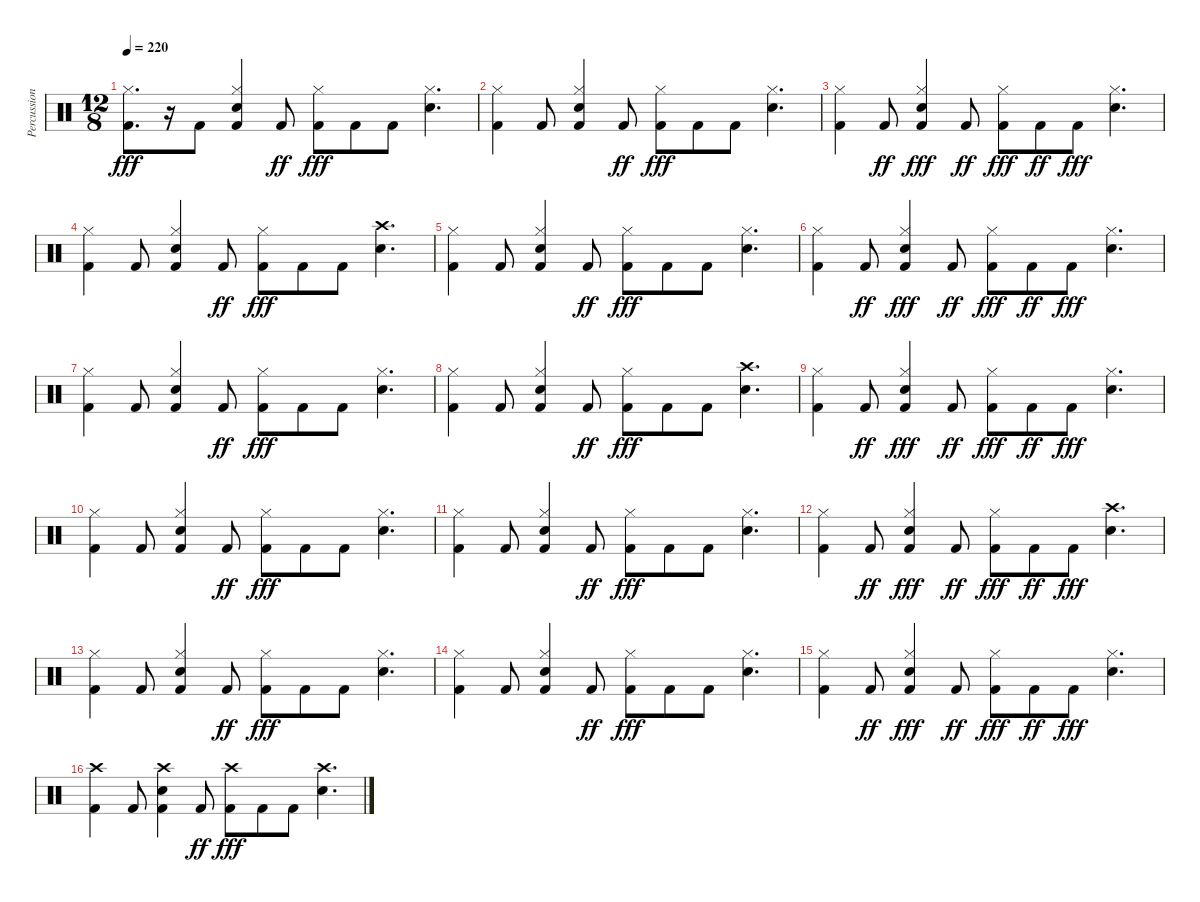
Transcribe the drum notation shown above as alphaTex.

\track ("Percussion" "Percussion") {instrument percussion}
\staff {score}
\articulation defaults
\ts (12 8)
\tempo 220
\clef neutral
\ks c
("Kick (hit) 2" "Hi-Hat (closed)").8{d dy fff} r.16 "Kick (hit) 2".8 ("Kick (hit) 2" "Snare (hit) 2" "Hi-Hat (closed)").4 "Kick (hit) 2".8{dy ff} ("Kick (hit) 2" "Hi-Hat (closed)").8{dy fff} "Kick (hit) 2".8 "Kick (hit) 2".8 ("Snare (hit) 2" "Hi-Hat (closed)").4{d} |
("Kick (hit) 2" "Hi-Hat (closed)").4 "Kick (hit) 2".8 ("Kick (hit) 2" "Snare (hit) 2" "Hi-Hat (closed)").4 "Kick (hit) 2".8{dy ff} ("Kick (hit) 2" "Hi-Hat (closed)").8{dy fff} "Kick (hit) 2".8 "Kick (hit) 2".8 ("Snare (hit) 2" "Hi-Hat (closed)").4{d} |
("Kick (hit) 2" "Hi-Hat (closed)").4 "Kick (hit) 2".8{dy ff} ("Kick (hit) 2" "Snare (hit) 2" "Hi-Hat (closed)").4{dy fff} "Kick (hit) 2".8{dy ff} ("Kick (hit) 2" "Hi-Hat (closed)").8{dy fff} "Kick (hit) 2".8{dy ff} "Kick (hit) 2".8{dy fff} ("Snare (hit) 2" "Hi-Hat (closed)").4{d} |
("Kick (hit) 2" "Hi-Hat (closed)").4 "Kick (hit) 2".8 ("Kick (hit) 2" "Snare (hit) 2" "Hi-Hat (closed)").4 "Kick (hit) 2".8{dy ff} ("Kick (hit) 2" "Hi-Hat (closed)").8{dy fff} "Kick (hit) 2".8 "Kick (hit) 2".8 ("Snare (hit) 2" "Crash high (hit)").4{d} |
("Kick (hit) 2" "Hi-Hat (closed)").4 "Kick (hit) 2".8 ("Kick (hit) 2" "Snare (hit) 2" "Hi-Hat (closed)").4 "Kick (hit) 2".8{dy ff} ("Kick (hit) 2" "Hi-Hat (closed)").8{dy fff} "Kick (hit) 2".8 "Kick (hit) 2".8 ("Snare (hit) 2" "Hi-Hat (closed)").4{d} |
("Kick (hit) 2" "Hi-Hat (closed)").4 "Kick (hit) 2".8{dy ff} ("Kick (hit) 2" "Snare (hit) 2" "Hi-Hat (closed)").4{dy fff} "Kick (hit) 2".8{dy ff} ("Kick (hit) 2" "Hi-Hat (closed)").8{dy fff} "Kick (hit) 2".8{dy ff} "Kick (hit) 2".8{dy fff} ("Snare (hit) 2" "Hi-Hat (closed)").4{d} |
("Kick (hit) 2" "Hi-Hat (closed)").4 "Kick (hit) 2".8 ("Kick (hit) 2" "Snare (hit) 2" "Hi-Hat (closed)").4 "Kick (hit) 2".8{dy ff} ("Kick (hit) 2" "Hi-Hat (closed)").8{dy fff} "Kick (hit) 2".8 "Kick (hit) 2".8 ("Snare (hit) 2" "Hi-Hat (closed)").4{d} |
("Kick (hit) 2" "Hi-Hat (closed)").4 "Kick (hit) 2".8 ("Kick (hit) 2" "Snare (hit) 2" "Hi-Hat (closed)").4 "Kick (hit) 2".8{dy ff} ("Kick (hit) 2" "Hi-Hat (closed)").8{dy fff} "Kick (hit) 2".8 "Kick (hit) 2".8 ("Snare (hit) 2" "Crash high (hit)").4{d} |
("Kick (hit) 2" "Hi-Hat (closed)").4 "Kick (hit) 2".8{dy ff} ("Kick (hit) 2" "Snare (hit) 2" "Hi-Hat (closed)").4{dy fff} "Kick (hit) 2".8{dy ff} ("Kick (hit) 2" "Hi-Hat (closed)").8{dy fff} "Kick (hit) 2".8{dy ff} "Kick (hit) 2".8{dy fff} ("Snare (hit) 2" "Hi-Hat (closed)").4{d} |
("Kick (hit) 2" "Hi-Hat (closed)").4 "Kick (hit) 2".8 ("Kick (hit) 2" "Snare (hit) 2" "Hi-Hat (closed)").4 "Kick (hit) 2".8{dy ff} ("Kick (hit) 2" "Hi-Hat (closed)").8{dy fff} "Kick (hit) 2".8 "Kick (hit) 2".8 ("Snare (hit) 2" "Hi-Hat (closed)").4{d} |
("Kick (hit) 2" "Hi-Hat (closed)").4 "Kick (hit) 2".8 ("Kick (hit) 2" "Snare (hit) 2" "Hi-Hat (closed)").4 "Kick (hit) 2".8{dy ff} ("Kick (hit) 2" "Hi-Hat (closed)").8{dy fff} "Kick (hit) 2".8 "Kick (hit) 2".8 ("Snare (hit) 2" "Hi-Hat (closed)").4{d} |
("Kick (hit) 2" "Hi-Hat (closed)").4 "Kick (hit) 2".8{dy ff} ("Kick (hit) 2" "Snare (hit) 2" "Hi-Hat (closed)").4{dy fff} "Kick (hit) 2".8{dy ff} ("Kick (hit) 2" "Hi-Hat (closed)").8{dy fff} "Kick (hit) 2".8{dy ff} "Kick (hit) 2".8{dy fff} ("Snare (hit) 2" "Crash high (hit)").4{d} |
("Kick (hit) 2" "Hi-Hat (closed)").4 "Kick (hit) 2".8 ("Kick (hit) 2" "Snare (hit) 2" "Hi-Hat (closed)").4 "Kick (hit) 2".8{dy ff} ("Kick (hit) 2" "Hi-Hat (closed)").8{dy fff} "Kick (hit) 2".8 "Kick (hit) 2".8 ("Snare (hit) 2" "Hi-Hat (closed)").4{d} |
("Kick (hit) 2" "Hi-Hat (closed)").4 "Kick (hit) 2".8 ("Kick (hit) 2" "Snare (hit) 2" "Hi-Hat (closed)").4 "Kick (hit) 2".8{dy ff} ("Kick (hit) 2" "Hi-Hat (closed)").8{dy fff} "Kick (hit) 2".8 "Kick (hit) 2".8 ("Snare (hit) 2" "Hi-Hat (closed)").4{d} |
("Kick (hit) 2" "Hi-Hat (closed)").4 "Kick (hit) 2".8{dy ff} ("Kick (hit) 2" "Snare (hit) 2" "Hi-Hat (closed)").4{dy fff} "Kick (hit) 2".8{dy ff} ("Kick (hit) 2" "Hi-Hat (closed)").8{dy fff} "Kick (hit) 2".8{dy ff} "Kick (hit) 2".8{dy fff} ("Snare (hit) 2" "Hi-Hat (closed)").4{d} |
("Kick (hit) 2" "Crash high (hit)").4 "Kick (hit) 2".8 ("Kick (hit) 2" "Snare (hit) 2" "Crash high (hit)").4 "Kick (hit) 2".8{dy ff} ("Kick (hit) 2" "Crash high (hit)").8{dy fff} "Kick (hit) 2".8 "Kick (hit) 2".8 ("Snare (hit) 2" "Crash high (hit)").4{d}
